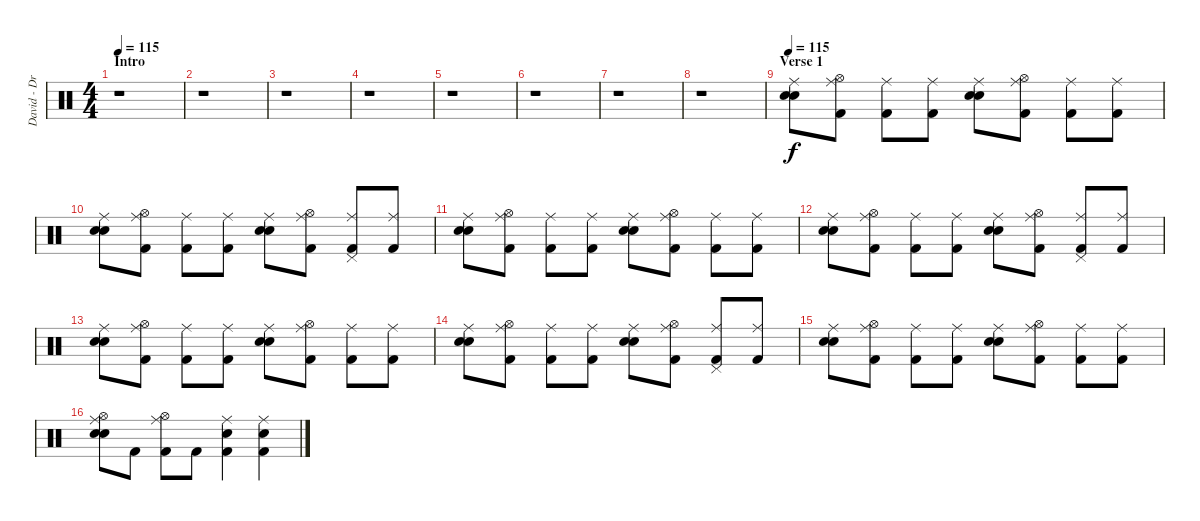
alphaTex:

\track ("David - Drums" "David - Dr") {instrument percussion}
\staff {score}
\articulation defaults
\ts (4 4)
\section ("" "Intro")
\tempo 115
\clef neutral
\ks c
r.1{dy f} |
r.1 |
r.1 |
r.1 |
r.1 |
r.1 |
r.1 |
r.1 |
\section ("" "Verse 1")
\tempo 115
("Ride (middle)" "Electric Snare (hit)" "Snare (hit) 2").8 ("Ride (middle)" "Hi-Hat (open)" "Kick (hit) 2").8 ("Ride (middle)" "Kick (hit) 2").8 ("Ride (middle)" "Kick (hit) 2").8 ("Ride (middle)" "Electric Snare (hit)" "Snare (hit) 2").8 ("Ride (middle)" "Hi-Hat (open)" "Kick (hit) 2").8 ("Ride (middle)" "Kick (hit) 2").8 ("Ride (middle)" "Kick (hit) 2").8 |
("Ride (middle)" "Electric Snare (hit)" "Snare (hit) 2").8 ("Ride (middle)" "Hi-Hat (open)" "Kick (hit) 2").8 ("Ride (middle)" "Kick (hit) 2").8 ("Ride (middle)" "Kick (hit) 2").8 ("Ride (middle)" "Electric Snare (hit)" "Snare (hit) 2").8 ("Ride (middle)" "Hi-Hat (open)" "Kick (hit) 2").8 ("Ride (middle)" "Pedal Hi-Hat (hit)" "Kick (hit) 2").8 ("Ride (middle)" "Kick (hit) 2").8 |
("Ride (middle)" "Electric Snare (hit)" "Snare (hit) 2").8 ("Ride (middle)" "Hi-Hat (open)" "Kick (hit) 2").8 ("Ride (middle)" "Kick (hit) 2").8 ("Ride (middle)" "Kick (hit) 2").8 ("Ride (middle)" "Electric Snare (hit)" "Snare (hit) 2").8 ("Ride (middle)" "Hi-Hat (open)" "Kick (hit) 2").8 ("Ride (middle)" "Kick (hit) 2").8 ("Ride (middle)" "Kick (hit) 2").8 |
("Ride (middle)" "Electric Snare (hit)" "Snare (hit) 2").8 ("Ride (middle)" "Hi-Hat (open)" "Kick (hit) 2").8 ("Ride (middle)" "Kick (hit) 2").8 ("Ride (middle)" "Kick (hit) 2").8 ("Ride (middle)" "Electric Snare (hit)" "Snare (hit) 2").8 ("Ride (middle)" "Hi-Hat (open)" "Kick (hit) 2").8 ("Ride (middle)" "Pedal Hi-Hat (hit)" "Kick (hit) 2").8 ("Ride (middle)" "Kick (hit) 2").8 |
("Ride (middle)" "Electric Snare (hit)" "Snare (hit) 2").8 ("Ride (middle)" "Hi-Hat (open)" "Kick (hit) 2").8 ("Ride (middle)" "Kick (hit) 2").8 ("Ride (middle)" "Kick (hit) 2").8 ("Ride (middle)" "Electric Snare (hit)" "Snare (hit) 2").8 ("Ride (middle)" "Hi-Hat (open)" "Kick (hit) 2").8 ("Ride (middle)" "Kick (hit) 2").8 ("Ride (middle)" "Kick (hit) 2").8 |
("Ride (middle)" "Electric Snare (hit)" "Snare (hit) 2").8 ("Ride (middle)" "Hi-Hat (open)" "Kick (hit) 2").8 ("Ride (middle)" "Kick (hit) 2").8 ("Ride (middle)" "Kick (hit) 2").8 ("Ride (middle)" "Electric Snare (hit)" "Snare (hit) 2").8 ("Ride (middle)" "Hi-Hat (open)" "Kick (hit) 2").8 ("Ride (middle)" "Pedal Hi-Hat (hit)" "Kick (hit) 2").8 ("Ride (middle)" "Kick (hit) 2").8 |
("Ride (middle)" "Electric Snare (hit)" "Snare (hit) 2").8 ("Ride (middle)" "Hi-Hat (open)" "Kick (hit) 2").8 ("Ride (middle)" "Kick (hit) 2").8 ("Ride (middle)" "Kick (hit) 2").8 ("Ride (middle)" "Electric Snare (hit)" "Snare (hit) 2").8 ("Ride (middle)" "Hi-Hat (open)" "Kick (hit) 2").8 ("Ride (middle)" "Kick (hit) 2").8 ("Ride (middle)" "Kick (hit) 2").8 |
("Ride (middle)" "Hi-Hat (open)" "Electric Snare (hit)" "Snare (hit) 2").8 "Kick (hit) 2".8 ("Ride (middle)" "Hi-Hat (open)" "Kick (hit) 2").8 "Kick (hit) 2".8 ("Ride (middle)" "Electric Snare (hit)" "Kick (hit) 2").4{bd 120} ("Ride (middle)" "Electric Snare (hit)" "Kick (hit) 2").4
